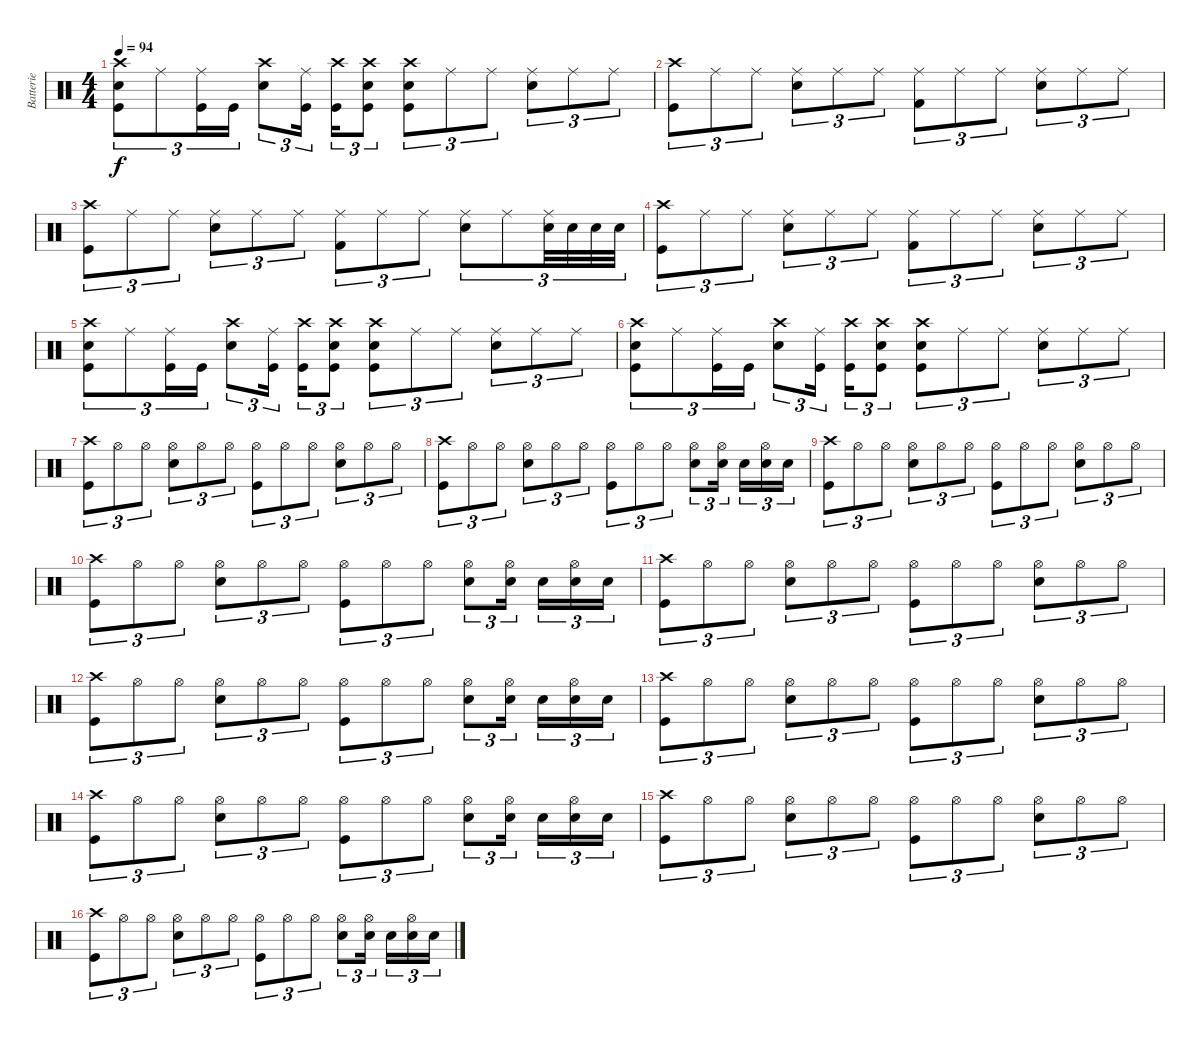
\track ("Batterie" "Batterie") {instrument percussion}
\staff {score}
\articulation defaults
\ts (4 4)
\tempo 94
\clef neutral
\ks c
("Crash high (hit)" "Snare (hit) 2" "Kick (hit)").8{tu (3 2) dy f} "Ride (middle)".8{tu (3 2)} ("Ride (middle)" "Kick (hit)").16{tu (3 2)} "Kick (hit)".16{tu (3 2)} ("Crash high (hit)" "Snare (hit) 2").8{tu (3 2)} ("Ride (middle)" "Kick (hit)").16{tu (3 2)} ("Crash high (hit)" "Kick (hit)").16{tu (3 2)} ("Crash high (hit)" "Snare (hit) 2" "Kick (hit)").8{tu (3 2)} ("Crash high (hit)" "Snare (hit) 2" "Kick (hit)").8{tu (3 2)} "Ride (middle)".8{tu (3 2)} "Ride (middle)".8{tu (3 2)} ("Ride (middle)" "Snare (hit) 2").8{tu (3 2)} "Ride (middle)".8{tu (3 2)} "Ride (middle)".8{tu (3 2)} |
("Crash high (hit)" "Kick (hit)").8{tu (3 2)} "Ride (middle)".8{tu (3 2)} "Ride (middle)".8{tu (3 2)} ("Ride (middle)" "Snare (hit) 2").8{tu (3 2)} "Ride (middle)".8{tu (3 2)} "Ride (middle)".8{tu (3 2)} ("Ride (middle)" "Kick (hit) 2").8{tu (3 2)} "Ride (middle)".8{tu (3 2)} "Ride (middle)".8{tu (3 2)} ("Ride (middle)" "Snare (hit) 2").8{tu (3 2)} "Ride (middle)".8{tu (3 2)} "Ride (middle)".8{tu (3 2)} |
("Crash high (hit)" "Kick (hit)").8{tu (3 2)} "Ride (middle)".8{tu (3 2)} "Ride (middle)".8{tu (3 2)} ("Ride (middle)" "Snare (hit) 2").8{tu (3 2)} "Ride (middle)".8{tu (3 2)} "Ride (middle)".8{tu (3 2)} ("Ride (middle)" "Kick (hit) 2").8{tu (3 2)} "Ride (middle)".8{tu (3 2)} "Ride (middle)".8{tu (3 2)} ("Ride (middle)" "Snare (hit) 2").8{tu (3 2)} "Ride (middle)".8{tu (3 2)} ("Ride (middle)" "Snare (hit) 2").32{tu (3 2)} "Snare (hit) 2".32{tu (3 2)} "Snare (hit) 2".32{tu (3 2)} "Snare (hit) 2".32{tu (3 2)} |
("Crash high (hit)" "Kick (hit)").8{tu (3 2)} "Ride (middle)".8{tu (3 2)} "Ride (middle)".8{tu (3 2)} ("Ride (middle)" "Snare (hit) 2").8{tu (3 2)} "Ride (middle)".8{tu (3 2)} "Ride (middle)".8{tu (3 2)} ("Ride (middle)" "Kick (hit) 2").8{tu (3 2)} "Ride (middle)".8{tu (3 2)} "Ride (middle)".8{tu (3 2)} ("Ride (middle)" "Snare (hit) 2").8{tu (3 2)} "Ride (middle)".8{tu (3 2)} "Ride (middle)".8{tu (3 2)} |
("Crash high (hit)" "Snare (hit) 2" "Kick (hit)").8{tu (3 2)} "Ride (middle)".8{tu (3 2)} ("Ride (middle)" "Kick (hit)").16{tu (3 2)} "Kick (hit)".16{tu (3 2)} ("Crash high (hit)" "Snare (hit) 2").8{tu (3 2)} ("Ride (middle)" "Kick (hit)").16{tu (3 2)} ("Crash high (hit)" "Kick (hit)").16{tu (3 2)} ("Crash high (hit)" "Snare (hit) 2" "Kick (hit)").8{tu (3 2)} ("Crash high (hit)" "Snare (hit) 2" "Kick (hit)").8{tu (3 2)} "Ride (middle)".8{tu (3 2)} "Ride (middle)".8{tu (3 2)} ("Ride (middle)" "Snare (hit) 2").8{tu (3 2)} "Ride (middle)".8{tu (3 2)} "Ride (middle)".8{tu (3 2)} |
("Crash high (hit)" "Snare (hit) 2" "Kick (hit)").8{tu (3 2)} "Ride (middle)".8{tu (3 2)} ("Ride (middle)" "Kick (hit)").16{tu (3 2)} "Kick (hit)".16{tu (3 2)} ("Crash high (hit)" "Snare (hit) 2").8{tu (3 2)} ("Ride (middle)" "Kick (hit)").16{tu (3 2)} ("Crash high (hit)" "Kick (hit)").16{tu (3 2)} ("Crash high (hit)" "Snare (hit) 2" "Kick (hit)").8{tu (3 2)} ("Crash high (hit)" "Snare (hit) 2" "Kick (hit)").8{tu (3 2)} "Ride (middle)".8{tu (3 2)} "Ride (middle)".8{tu (3 2)} ("Ride (middle)" "Snare (hit) 2").8{tu (3 2)} "Ride (middle)".8{tu (3 2)} "Ride (middle)".8{tu (3 2)} |
("Crash high (hit)" "Kick (hit)").8{tu (3 2)} "Hi-Hat (open)".8{tu (3 2)} "Hi-Hat (open)".8{tu (3 2)} ("Hi-Hat (open)" "Snare (hit) 2").8{tu (3 2)} "Hi-Hat (open)".8{tu (3 2)} "Hi-Hat (open)".8{tu (3 2)} ("Hi-Hat (open)" "Kick (hit)").8{tu (3 2)} "Hi-Hat (open)".8{tu (3 2)} "Hi-Hat (open)".8{tu (3 2)} ("Hi-Hat (open)" "Snare (hit) 2").8{tu (3 2)} "Hi-Hat (open)".8{tu (3 2)} "Hi-Hat (open)".8{tu (3 2)} |
("Crash high (hit)" "Kick (hit)").8{tu (3 2)} "Hi-Hat (open)".8{tu (3 2)} "Hi-Hat (open)".8{tu (3 2)} ("Hi-Hat (open)" "Snare (hit) 2").8{tu (3 2)} "Hi-Hat (open)".8{tu (3 2)} "Hi-Hat (open)".8{tu (3 2)} ("Hi-Hat (open)" "Kick (hit)").8{tu (3 2)} "Hi-Hat (open)".8{tu (3 2)} "Hi-Hat (open)".8{tu (3 2)} ("Hi-Hat (open)" "Snare (hit) 2").8{tu (3 2)} ("Hi-Hat (open)" "Snare (hit) 2").16{tu (3 2)} "Snare (hit) 2".16{tu (3 2)} ("Hi-Hat (open)" "Snare (hit) 2").16{tu (3 2)} "Snare (hit) 2".16{tu (3 2)} |
("Crash high (hit)" "Kick (hit)").8{tu (3 2)} "Hi-Hat (open)".8{tu (3 2)} "Hi-Hat (open)".8{tu (3 2)} ("Hi-Hat (open)" "Snare (hit) 2").8{tu (3 2)} "Hi-Hat (open)".8{tu (3 2)} "Hi-Hat (open)".8{tu (3 2)} ("Hi-Hat (open)" "Kick (hit)").8{tu (3 2)} "Hi-Hat (open)".8{tu (3 2)} "Hi-Hat (open)".8{tu (3 2)} ("Hi-Hat (open)" "Snare (hit) 2").8{tu (3 2)} "Hi-Hat (open)".8{tu (3 2)} "Hi-Hat (open)".8{tu (3 2)} |
("Crash high (hit)" "Kick (hit)").8{tu (3 2)} "Hi-Hat (open)".8{tu (3 2)} "Hi-Hat (open)".8{tu (3 2)} ("Hi-Hat (open)" "Snare (hit) 2").8{tu (3 2)} "Hi-Hat (open)".8{tu (3 2)} "Hi-Hat (open)".8{tu (3 2)} ("Hi-Hat (open)" "Kick (hit)").8{tu (3 2)} "Hi-Hat (open)".8{tu (3 2)} "Hi-Hat (open)".8{tu (3 2)} ("Hi-Hat (open)" "Snare (hit) 2").8{tu (3 2)} ("Hi-Hat (open)" "Snare (hit) 2").16{tu (3 2)} "Snare (hit) 2".16{tu (3 2)} ("Hi-Hat (open)" "Snare (hit) 2").16{tu (3 2)} "Snare (hit) 2".16{tu (3 2)} |
("Crash high (hit)" "Kick (hit)").8{tu (3 2)} "Hi-Hat (open)".8{tu (3 2)} "Hi-Hat (open)".8{tu (3 2)} ("Hi-Hat (open)" "Snare (hit) 2").8{tu (3 2)} "Hi-Hat (open)".8{tu (3 2)} "Hi-Hat (open)".8{tu (3 2)} ("Hi-Hat (open)" "Kick (hit)").8{tu (3 2)} "Hi-Hat (open)".8{tu (3 2)} "Hi-Hat (open)".8{tu (3 2)} ("Hi-Hat (open)" "Snare (hit) 2").8{tu (3 2)} "Hi-Hat (open)".8{tu (3 2)} "Hi-Hat (open)".8{tu (3 2)} |
("Crash high (hit)" "Kick (hit)").8{tu (3 2)} "Hi-Hat (open)".8{tu (3 2)} "Hi-Hat (open)".8{tu (3 2)} ("Hi-Hat (open)" "Snare (hit) 2").8{tu (3 2)} "Hi-Hat (open)".8{tu (3 2)} "Hi-Hat (open)".8{tu (3 2)} ("Hi-Hat (open)" "Kick (hit)").8{tu (3 2)} "Hi-Hat (open)".8{tu (3 2)} "Hi-Hat (open)".8{tu (3 2)} ("Hi-Hat (open)" "Snare (hit) 2").8{tu (3 2)} ("Hi-Hat (open)" "Snare (hit) 2").16{tu (3 2)} "Snare (hit) 2".16{tu (3 2)} ("Hi-Hat (open)" "Snare (hit) 2").16{tu (3 2)} "Snare (hit) 2".16{tu (3 2)} |
("Crash high (hit)" "Kick (hit)").8{tu (3 2)} "Hi-Hat (open)".8{tu (3 2)} "Hi-Hat (open)".8{tu (3 2)} ("Hi-Hat (open)" "Snare (hit) 2").8{tu (3 2)} "Hi-Hat (open)".8{tu (3 2)} "Hi-Hat (open)".8{tu (3 2)} ("Hi-Hat (open)" "Kick (hit)").8{tu (3 2)} "Hi-Hat (open)".8{tu (3 2)} "Hi-Hat (open)".8{tu (3 2)} ("Hi-Hat (open)" "Snare (hit) 2").8{tu (3 2)} "Hi-Hat (open)".8{tu (3 2)} "Hi-Hat (open)".8{tu (3 2)} |
("Crash high (hit)" "Kick (hit)").8{tu (3 2)} "Hi-Hat (open)".8{tu (3 2)} "Hi-Hat (open)".8{tu (3 2)} ("Hi-Hat (open)" "Snare (hit) 2").8{tu (3 2)} "Hi-Hat (open)".8{tu (3 2)} "Hi-Hat (open)".8{tu (3 2)} ("Hi-Hat (open)" "Kick (hit)").8{tu (3 2)} "Hi-Hat (open)".8{tu (3 2)} "Hi-Hat (open)".8{tu (3 2)} ("Hi-Hat (open)" "Snare (hit) 2").8{tu (3 2)} ("Hi-Hat (open)" "Snare (hit) 2").16{tu (3 2)} "Snare (hit) 2".16{tu (3 2)} ("Hi-Hat (open)" "Snare (hit) 2").16{tu (3 2)} "Snare (hit) 2".16{tu (3 2)} |
("Crash high (hit)" "Kick (hit)").8{tu (3 2)} "Hi-Hat (open)".8{tu (3 2)} "Hi-Hat (open)".8{tu (3 2)} ("Hi-Hat (open)" "Snare (hit) 2").8{tu (3 2)} "Hi-Hat (open)".8{tu (3 2)} "Hi-Hat (open)".8{tu (3 2)} ("Hi-Hat (open)" "Kick (hit)").8{tu (3 2)} "Hi-Hat (open)".8{tu (3 2)} "Hi-Hat (open)".8{tu (3 2)} ("Hi-Hat (open)" "Snare (hit) 2").8{tu (3 2)} "Hi-Hat (open)".8{tu (3 2)} "Hi-Hat (open)".8{tu (3 2)} |
("Crash high (hit)" "Kick (hit)").8{tu (3 2)} "Hi-Hat (open)".8{tu (3 2)} "Hi-Hat (open)".8{tu (3 2)} ("Hi-Hat (open)" "Snare (hit) 2").8{tu (3 2)} "Hi-Hat (open)".8{tu (3 2)} "Hi-Hat (open)".8{tu (3 2)} ("Hi-Hat (open)" "Kick (hit)").8{tu (3 2)} "Hi-Hat (open)".8{tu (3 2)} "Hi-Hat (open)".8{tu (3 2)} ("Hi-Hat (open)" "Snare (hit) 2").8{tu (3 2)} ("Hi-Hat (open)" "Snare (hit) 2").16{tu (3 2)} "Snare (hit) 2".16{tu (3 2)} ("Hi-Hat (open)" "Snare (hit) 2").16{tu (3 2)} "Snare (hit) 2".16{tu (3 2)}
